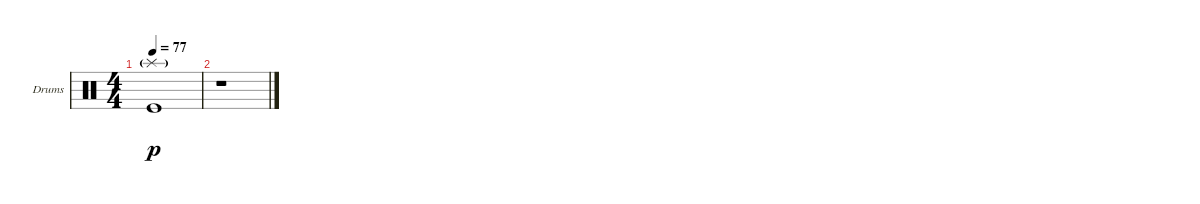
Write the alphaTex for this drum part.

\bracketExtendMode groupsimilarinstruments
\firstSystemTrackNameOrientation horizontal
\otherSystemsTrackNameOrientation horizontal
\track ("Ударники Григорий Гурьянов" "Drums") {instrument percussion}
\staff {score}
\articulation defaults
\ts (4 4)
\tempo 77
\clef neutral
\ks c
("Kick (hit)" "Splash (hit)"{g}).1{dy p} |
r.1
